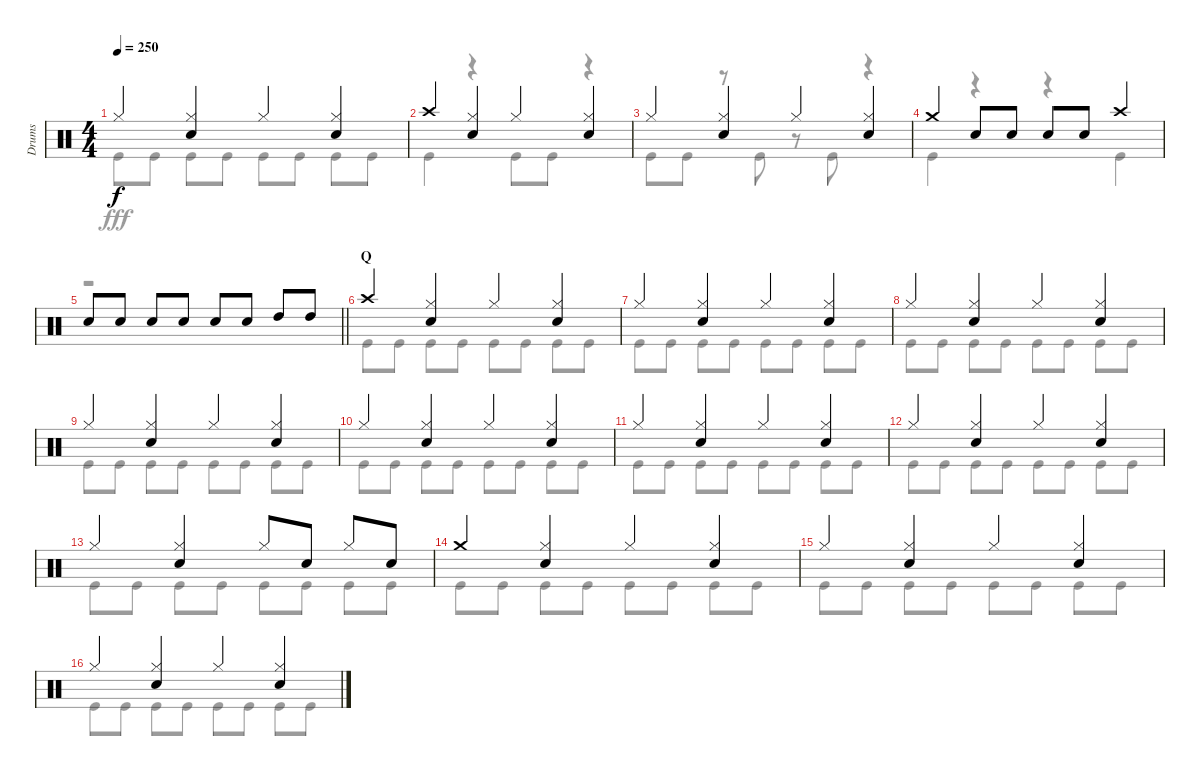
\track ("Drums" "Drums") {instrument percussion}
\staff {score}
\articulation defaults
\voice
\ts (4 4)
\tempo 250
\clef neutral
\ks c "Hi-Hat (closed)".4{dy f}
("Hi-Hat (closed)" "Snare (hit) 2").4 "Hi-Hat (closed)".4 ("Hi-Hat (closed)" "Snare (hit) 2").4 |
"Crash high (hit)".4 ("Hi-Hat (closed)" "Snare (hit) 2").4 "Hi-Hat (closed)".4 ("Hi-Hat (closed)" "Snare (hit) 2").4 |
"Hi-Hat (closed)".4 ("Hi-Hat (closed)" "Snare (hit) 2").4 "Hi-Hat (closed)".4 ("Hi-Hat (closed)" "Snare (hit) 2").4 |
"Crash medium (hit)".4 "Snare (hit) 2".8 "Snare (hit) 2".8 "Snare (hit) 2".8 "Snare (hit) 2".8 "Crash high (hit)".4 |
\barLineRight lightlight "Snare (hit) 2".8 "Snare (hit) 2".8 "Snare (hit) 2".8 "Snare (hit) 2".8 "Snare (hit) 2".8 "Snare (hit) 2".8 "High Tom (hit)".8 "High Tom (hit)".8
|
\section ("" "Q")
"Crash high (hit)".4 ("Hi-Hat (closed)" "Snare (hit) 2").4 "Hi-Hat (closed)".4 ("Hi-Hat (closed)" "Snare (hit) 2").4 |
"Hi-Hat (closed)".4 ("Hi-Hat (closed)" "Snare (hit) 2").4 "Hi-Hat (closed)".4 ("Hi-Hat (closed)" "Snare (hit) 2").4 |
"Hi-Hat (closed)".4 ("Hi-Hat (closed)" "Snare (hit) 2").4 "Hi-Hat (closed)".4 ("Hi-Hat (closed)" "Snare (hit) 2").4 |
"Hi-Hat (closed)".4 ("Hi-Hat (closed)" "Snare (hit) 2").4 "Hi-Hat (closed)".4 ("Hi-Hat (closed)" "Snare (hit) 2").4 |
"Hi-Hat (closed)".4 ("Hi-Hat (closed)" "Snare (hit) 2").4 "Hi-Hat (closed)".4 ("Hi-Hat (closed)" "Snare (hit) 2").4 |
"Hi-Hat (closed)".4 ("Hi-Hat (closed)" "Snare (hit) 2").4 "Hi-Hat (closed)".4 ("Hi-Hat (closed)" "Snare (hit) 2").4 |
"Hi-Hat (closed)".4 ("Hi-Hat (closed)" "Snare (hit) 2").4 "Hi-Hat (closed)".4 ("Hi-Hat (closed)" "Snare (hit) 2").4 |
"Hi-Hat (closed)".4 ("Hi-Hat (closed)" "Snare (hit) 2").4 "Hi-Hat (closed)".8 "Snare (hit) 2".8 "Hi-Hat (closed)".8 "Snare (hit) 2".8 |
"Crash medium (hit)".4 ("Hi-Hat (closed)" "Snare (hit) 2").4 "Hi-Hat (closed)".4 ("Hi-Hat (closed)" "Snare (hit) 2").4 |
"Hi-Hat (closed)".4 ("Hi-Hat (closed)" "Snare (hit) 2").4 "Hi-Hat (closed)".4 ("Hi-Hat (closed)" "Snare (hit) 2").4 |
"Hi-Hat (closed)".4 ("Hi-Hat (closed)" "Snare (hit) 2").4 "Hi-Hat (closed)".4 ("Hi-Hat (closed)" "Snare (hit) 2").4
\voice
\clef neutral
\ottava regular
\simile none
\ks c "Kick (hit)".8{dy fff} "Kick (hit)".8 "Kick (hit)".8 "Kick (hit)".8 "Kick (hit)".8 "Kick (hit)".8 "Kick (hit)".8 "Kick (hit)".8
|
"Kick (hit)".4 r.4 "Kick (hit)".8 "Kick (hit)".8 r.4 |
"Kick (hit)".8 "Kick (hit)".8 r.8 "Kick (hit)".8 r.8 "Kick (hit)".8 r.4 |
"Kick (hit)".4 r.4 r.4 "Kick (hit)".4 |
\barLineRight lightlight
r.1 |
"Kick (hit)".8 "Kick (hit)".8 "Kick (hit)".8 "Kick (hit)".8 "Kick (hit)".8 "Kick (hit)".8 "Kick (hit)".8 "Kick (hit)".8 |
"Kick (hit)".8 "Kick (hit)".8 "Kick (hit)".8 "Kick (hit)".8 "Kick (hit)".8 "Kick (hit)".8 "Kick (hit)".8 "Kick (hit)".8 |
"Kick (hit)".8 "Kick (hit)".8 "Kick (hit)".8 "Kick (hit)".8 "Kick (hit)".8 "Kick (hit)".8 "Kick (hit)".8 "Kick (hit)".8 |
"Kick (hit)".8 "Kick (hit)".8 "Kick (hit)".8 "Kick (hit)".8 "Kick (hit)".8 "Kick (hit)".8 "Kick (hit)".8 "Kick (hit)".8 |
"Kick (hit)".8 "Kick (hit)".8 "Kick (hit)".8 "Kick (hit)".8 "Kick (hit)".8 "Kick (hit)".8 "Kick (hit)".8 "Kick (hit)".8 |
"Kick (hit)".8 "Kick (hit)".8 "Kick (hit)".8 "Kick (hit)".8 "Kick (hit)".8 "Kick (hit)".8 "Kick (hit)".8 "Kick (hit)".8 |
"Kick (hit)".8 "Kick (hit)".8 "Kick (hit)".8 "Kick (hit)".8 "Kick (hit)".8 "Kick (hit)".8 "Kick (hit)".8 "Kick (hit)".8 |
"Kick (hit)".8 "Kick (hit)".8 "Kick (hit)".8 "Kick (hit)".8 "Kick (hit)".8 "Kick (hit)".8 "Kick (hit)".8 "Kick (hit)".8 |
"Kick (hit)".8 "Kick (hit)".8 "Kick (hit)".8 "Kick (hit)".8 "Kick (hit)".8 "Kick (hit)".8 "Kick (hit)".8 "Kick (hit)".8 |
"Kick (hit)".8 "Kick (hit)".8 "Kick (hit)".8 "Kick (hit)".8 "Kick (hit)".8 "Kick (hit)".8 "Kick (hit)".8 "Kick (hit)".8 |
"Kick (hit)".8 "Kick (hit)".8 "Kick (hit)".8 "Kick (hit)".8 "Kick (hit)".8 "Kick (hit)".8 "Kick (hit)".8 "Kick (hit)".8
